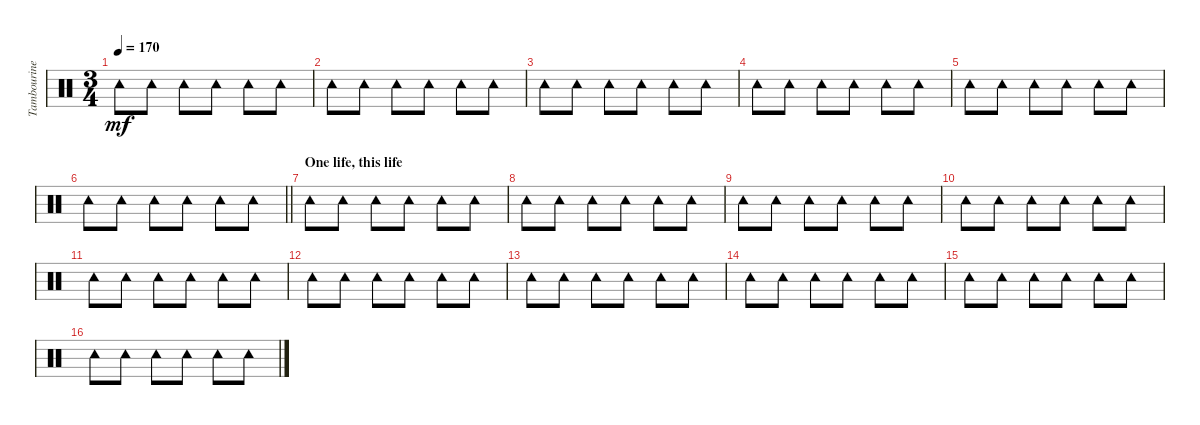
\track ("Tambourine" "Tambourine") {instrument percussion}
\staff {score}
\articulation defaults
\ts (3 4)
\tempo 170
\clef neutral
\ks c "Tambourine (hit)".8{dy mf} "Tambourine (hit)".8 "Tambourine (hit)".8 "Tambourine (hit)".8 "Tambourine (hit)".8 "Tambourine (hit)".8
|
"Tambourine (hit)".8 "Tambourine (hit)".8 "Tambourine (hit)".8 "Tambourine (hit)".8 "Tambourine (hit)".8 "Tambourine (hit)".8 |
"Tambourine (hit)".8 "Tambourine (hit)".8 "Tambourine (hit)".8 "Tambourine (hit)".8 "Tambourine (hit)".8 "Tambourine (hit)".8 |
"Tambourine (hit)".8 "Tambourine (hit)".8 "Tambourine (hit)".8 "Tambourine (hit)".8 "Tambourine (hit)".8 "Tambourine (hit)".8 |
"Tambourine (hit)".8 "Tambourine (hit)".8 "Tambourine (hit)".8 "Tambourine (hit)".8 "Tambourine (hit)".8 "Tambourine (hit)".8 |
\barLineRight lightlight "Tambourine (hit)".8 "Tambourine (hit)".8 "Tambourine (hit)".8 "Tambourine (hit)".8 "Tambourine (hit)".8 "Tambourine (hit)".8
|
\section ("" "One life, this life")
"Tambourine (hit)".8 "Tambourine (hit)".8 "Tambourine (hit)".8 "Tambourine (hit)".8 "Tambourine (hit)".8 "Tambourine (hit)".8 |
"Tambourine (hit)".8 "Tambourine (hit)".8 "Tambourine (hit)".8 "Tambourine (hit)".8 "Tambourine (hit)".8 "Tambourine (hit)".8 |
"Tambourine (hit)".8 "Tambourine (hit)".8 "Tambourine (hit)".8 "Tambourine (hit)".8 "Tambourine (hit)".8 "Tambourine (hit)".8 |
"Tambourine (hit)".8 "Tambourine (hit)".8 "Tambourine (hit)".8 "Tambourine (hit)".8 "Tambourine (hit)".8 "Tambourine (hit)".8 |
"Tambourine (hit)".8 "Tambourine (hit)".8 "Tambourine (hit)".8 "Tambourine (hit)".8 "Tambourine (hit)".8 "Tambourine (hit)".8 |
"Tambourine (hit)".8 "Tambourine (hit)".8 "Tambourine (hit)".8 "Tambourine (hit)".8 "Tambourine (hit)".8 "Tambourine (hit)".8 |
"Tambourine (hit)".8 "Tambourine (hit)".8 "Tambourine (hit)".8 "Tambourine (hit)".8 "Tambourine (hit)".8 "Tambourine (hit)".8 |
"Tambourine (hit)".8 "Tambourine (hit)".8 "Tambourine (hit)".8 "Tambourine (hit)".8 "Tambourine (hit)".8 "Tambourine (hit)".8 |
"Tambourine (hit)".8 "Tambourine (hit)".8 "Tambourine (hit)".8 "Tambourine (hit)".8 "Tambourine (hit)".8 "Tambourine (hit)".8 |
"Tambourine (hit)".8 "Tambourine (hit)".8 "Tambourine (hit)".8 "Tambourine (hit)".8 "Tambourine (hit)".8 "Tambourine (hit)".8
